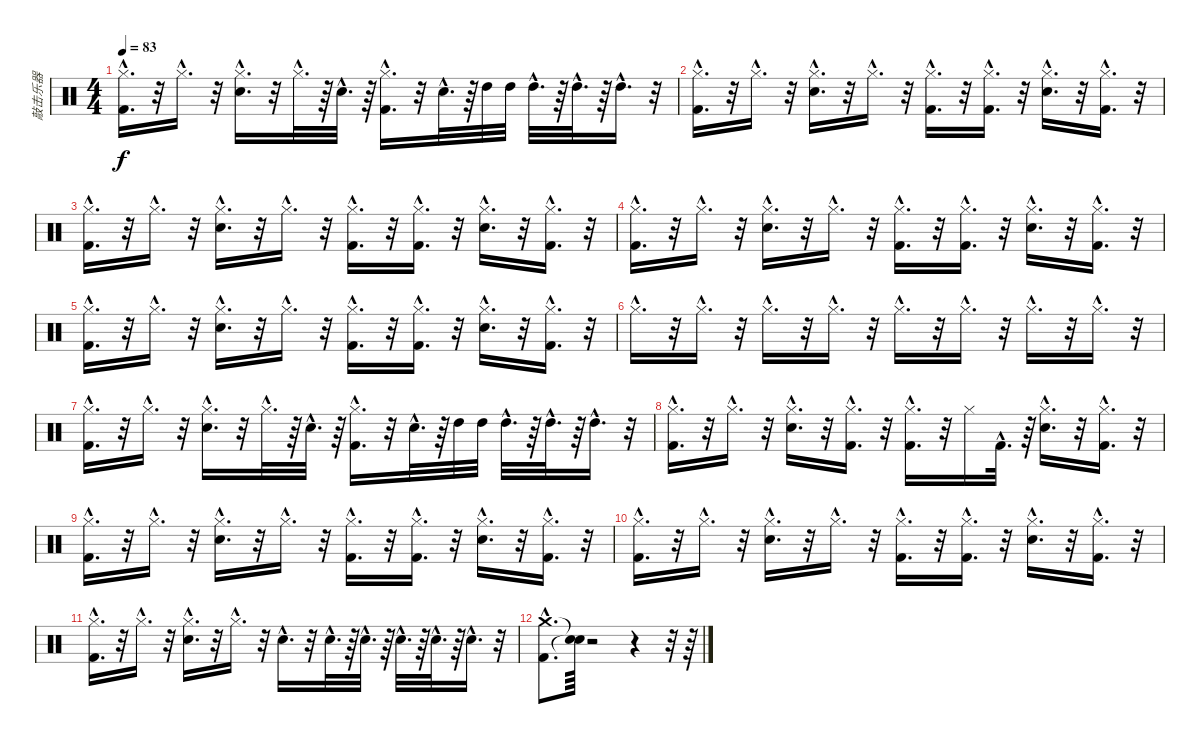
\track ("敲击乐器" "敲击乐器") {instrument percussion}
\staff {score}
\articulation defaults
\ts (4 4)
\tempo 83
\clef neutral
\ks c
("Hi-Hat (closed)"{hac} "Kick (hit) 2"{hac}).16{d dy f} r.32 "Hi-Hat (closed)"{hac}.16{d} r.32 ("Hi-Hat (closed)"{hac} "Snare (hit) 2"{hac}).16{d} r.32 "Hi-Hat (closed)"{hac}.32{d} r.64 "Snare (hit) 2"{hac}.32{d} r.64 ("Kick (hit) 2"{hac} "Hi-Hat (closed)"{hac}).16{d} r.32 "Snare (hit) 2"{hac}.32{d} r.64 "High Tom (hit)".32 "High Tom (hit)".32 "High Tom (hit)"{hac}.32{d} r.64 "High Tom (hit)"{hac}.32{d} r.64 "High Tom (hit)"{hac}.16{d} r.32 |
("Hi-Hat (closed)"{hac} "Kick (hit) 2"{hac}).16{d} r.32 "Hi-Hat (closed)"{hac}.16{d} r.32 ("Snare (hit) 2"{hac} "Hi-Hat (closed)"{hac}).16{d} r.32 "Hi-Hat (closed)"{hac}.16{d} r.32 ("Hi-Hat (closed)"{hac} "Kick (hit) 2"{hac}).16{d} r.32 ("Hi-Hat (closed)"{hac} "Kick (hit) 2"{hac}).16{d} r.32 ("Snare (hit) 2"{hac} "Hi-Hat (closed)"{hac}).16{d} r.32 ("Hi-Hat (closed)"{hac} "Kick (hit) 2"{hac}).16{d} r.32 |
("Kick (hit) 2"{hac} "Hi-Hat (closed)"{hac}).16{d} r.32 "Hi-Hat (closed)"{hac}.16{d} r.32 ("Hi-Hat (closed)"{hac} "Snare (hit) 2"{hac}).16{d} r.32 "Hi-Hat (closed)"{hac}.16{d} r.32 ("Kick (hit) 2"{hac} "Hi-Hat (closed)"{hac}).16{d} r.32 ("Hi-Hat (closed)"{hac} "Kick (hit) 2"{hac}).16{d} r.32 ("Snare (hit) 2"{hac} "Hi-Hat (closed)"{hac}).16{d} r.32 ("Kick (hit) 2"{hac} "Hi-Hat (closed)"{hac}).16{d} r.32 |
("Kick (hit) 2"{hac} "Hi-Hat (closed)"{hac}).16{d} r.32 "Hi-Hat (closed)"{hac}.16{d} r.32 ("Snare (hit) 2"{hac} "Hi-Hat (closed)"{hac}).16{d} r.32 "Hi-Hat (closed)"{hac}.16{d} r.32 ("Kick (hit) 2"{hac} "Hi-Hat (closed)"{hac}).16{d} r.32 ("Kick (hit) 2"{hac} "Hi-Hat (closed)"{hac}).16{d} r.32 ("Hi-Hat (closed)"{hac} "Snare (hit) 2"{hac}).16{d} r.32 ("Hi-Hat (closed)"{hac} "Kick (hit) 2"{hac}).16{d} r.32 |
("Kick (hit) 2"{hac} "Hi-Hat (closed)"{hac}).16{d} r.32 "Hi-Hat (closed)"{hac}.16{d} r.32 ("Hi-Hat (closed)"{hac} "Snare (hit) 2"{hac}).16{d} r.32 "Hi-Hat (closed)"{hac}.16{d} r.32 ("Kick (hit) 2"{hac} "Hi-Hat (closed)"{hac}).16{d} r.32 ("Kick (hit) 2"{hac} "Hi-Hat (closed)"{hac}).16{d} r.32 ("Snare (hit) 2"{hac} "Hi-Hat (closed)"{hac}).16{d} r.32 ("Kick (hit) 2"{hac} "Hi-Hat (closed)"{hac}).16{d} r.32 |
"Hi-Hat (closed)"{hac}.16{d} r.32 "Hi-Hat (closed)"{hac}.16{d} r.32 "Hi-Hat (closed)"{hac}.16{d} r.32 "Hi-Hat (closed)"{hac}.16{d} r.32 "Hi-Hat (closed)"{hac}.16{d} r.32 "Hi-Hat (closed)"{hac}.16{d} r.32 "Hi-Hat (closed)"{hac}.16{d} r.32 "Hi-Hat (closed)"{hac}.16{d} r.32 |
("Kick (hit) 2"{hac} "Hi-Hat (closed)"{hac}).16{d} r.32 "Hi-Hat (closed)"{hac}.16{d} r.32 ("Hi-Hat (closed)"{hac} "Snare (hit) 2"{hac}).16{d} r.32 "Hi-Hat (closed)"{hac}.32{d} r.64 "Snare (hit) 2"{hac}.32{d} r.64 ("Kick (hit) 2"{hac} "Hi-Hat (closed)"{hac}).16{d} r.32 "Snare (hit) 2"{hac}.32{d} r.64 "High Tom (hit)".32 "High Tom (hit)".32 "High Tom (hit)"{hac}.32{d} r.64 "High Tom (hit)"{hac}.32{d} r.64 "High Tom (hit)"{hac}.16{d} r.32 |
("Kick (hit) 2"{hac} "Hi-Hat (closed)"{hac}).16{d} r.32 "Hi-Hat (closed)"{hac}.16{d} r.32 ("Snare (hit) 2"{hac} "Hi-Hat (closed)"{hac}).16{d} r.32 ("Kick (hit) 2"{hac} "Hi-Hat (closed)"{hac}).16{d} r.32 ("Hi-Hat (closed)"{hac} "Kick (hit) 2"{hac}).16{d} r.32 "Hi-Hat (closed)".16 "Kick (hit) 2"{hac}.32{d} r.64 ("Snare (hit) 2"{hac} "Hi-Hat (closed)"{hac}).16{d} r.32 ("Hi-Hat (closed)"{hac} "Kick (hit) 2"{hac}).16{d} r.32 |
("Hi-Hat (closed)"{hac} "Kick (hit) 2"{hac}).16{d} r.32 "Hi-Hat (closed)"{hac}.16{d} r.32 ("Snare (hit) 2"{hac} "Hi-Hat (closed)"{hac}).16{d} r.32 "Hi-Hat (closed)"{hac}.16{d} r.32 ("Kick (hit) 2"{hac} "Hi-Hat (closed)"{hac}).16{d} r.32 ("Hi-Hat (closed)"{hac} "Kick (hit) 2"{hac}).16{d} r.32 ("Hi-Hat (closed)"{hac} "Snare (hit) 2"{hac}).16{d} r.32 ("Hi-Hat (closed)"{hac} "Kick (hit) 2"{hac}).16{d} r.32 |
("Hi-Hat (closed)"{hac} "Kick (hit) 2"{hac}).16{d} r.32 "Hi-Hat (closed)"{hac}.16{d} r.32 ("Snare (hit) 2"{hac} "Hi-Hat (closed)"{hac}).16{d} r.32 "Hi-Hat (closed)"{hac}.16{d} r.32 ("Kick (hit) 2"{hac} "Hi-Hat (closed)"{hac}).16{d} r.32 ("Kick (hit) 2"{hac} "Hi-Hat (closed)"{hac}).16{d} r.32 ("Hi-Hat (closed)"{hac} "Snare (hit) 2"{hac}).16{d} r.32 ("Kick (hit) 2"{hac} "Hi-Hat (closed)"{hac}).16{d} r.32 |
("Hi-Hat (closed)"{hac} "Kick (hit) 2"{hac}).16{d} r.32 "Hi-Hat (closed)"{hac}.16{d} r.32 ("Snare (hit) 2"{hac} "Hi-Hat (closed)"{hac}).16{d} r.32 "Hi-Hat (closed)"{hac}.16{d} r.32 "Snare (hit) 2"{hac}.16{d} r.32 "Snare (hit) 2"{hac}.32{d} r.64 "Snare (hit) 2"{hac}.32{d} r.64 "Snare (hit) 2"{hac}.32{d} r.64 "Snare (hit) 2"{hac}.32{d} r.64 "Snare (hit) 2"{hac}.16{d} r.32 |
("Crash medium (hit)"{hac} "Kick (hit) 2"{hac}).8{d} ("Snare (hit)"{t} "Snare (hit)"{t}).64 r.2 r.4 r.32 r.64
